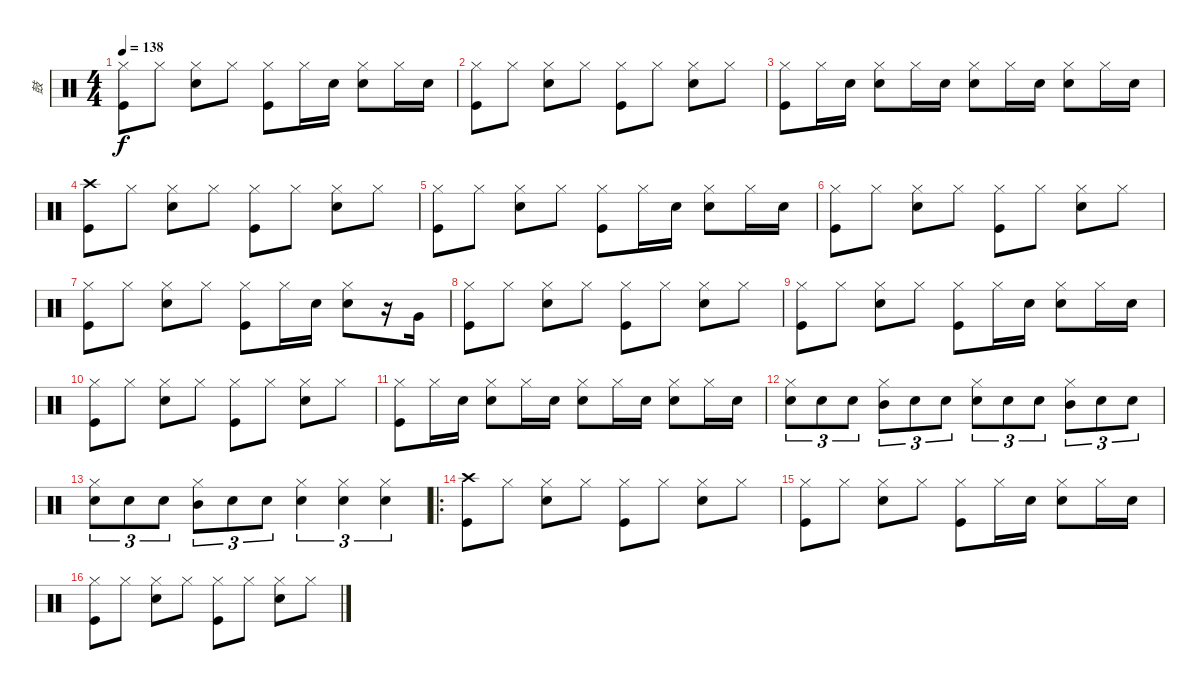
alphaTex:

\track ("鼓" "鼓") {instrument percussion}
\staff {score}
\articulation defaults
\ts (4 4)
\tempo 138
\clef neutral
\ks c
("Hi-Hat (closed)" "Kick (hit)").8{dy f} "Hi-Hat (closed)".8 ("Hi-Hat (closed)" "Snare (hit) 2").8 "Hi-Hat (closed)".8 ("Hi-Hat (closed)" "Kick (hit)").8 "Hi-Hat (closed)".16 "Snare (hit) 2".16 ("Hi-Hat (closed)" "Snare (hit) 2").8 "Hi-Hat (closed)".16 "Snare (hit) 2".16 |
("Hi-Hat (closed)" "Kick (hit)").8 "Hi-Hat (closed)".8 ("Hi-Hat (closed)" "Snare (hit) 2").8 "Hi-Hat (closed)".8 ("Hi-Hat (closed)" "Kick (hit)").8 "Hi-Hat (closed)".8 ("Hi-Hat (closed)" "Snare (hit) 2").8 "Hi-Hat (closed)".8 |
("Hi-Hat (closed)" "Kick (hit)").8 "Hi-Hat (closed)".16 "Snare (hit) 2".16 ("Hi-Hat (closed)" "Snare (hit) 2").8 "Hi-Hat (closed)".16 "Snare (hit) 2".16 ("Hi-Hat (closed)" "Snare (hit) 2").8 "Hi-Hat (closed)".16 "Snare (hit) 2".16 ("Hi-Hat (closed)" "Snare (hit) 2").8 "Hi-Hat (closed)".16 "Snare (hit) 2".16 |
("Crash high (hit)" "Kick (hit)").8 "Hi-Hat (closed)".8 ("Hi-Hat (closed)" "Snare (hit) 2").8 "Hi-Hat (closed)".8 ("Hi-Hat (closed)" "Kick (hit)").8 "Hi-Hat (closed)".8 ("Hi-Hat (closed)" "Snare (hit) 2").8 "Hi-Hat (closed)".8 |
("Hi-Hat (closed)" "Kick (hit)").8 "Hi-Hat (closed)".8 ("Hi-Hat (closed)" "Snare (hit) 2").8 "Hi-Hat (closed)".8 ("Hi-Hat (closed)" "Kick (hit)").8 "Hi-Hat (closed)".16 "Snare (hit) 2".16 ("Hi-Hat (closed)" "Snare (hit) 2").8 "Hi-Hat (closed)".16 "Snare (hit) 2".16 |
("Hi-Hat (closed)" "Kick (hit)").8 "Hi-Hat (closed)".8 ("Hi-Hat (closed)" "Snare (hit) 2").8 "Hi-Hat (closed)".8 ("Hi-Hat (closed)" "Kick (hit)").8 "Hi-Hat (closed)".8 ("Hi-Hat (closed)" "Snare (hit) 2").8 "Hi-Hat (closed)".8 |
("Hi-Hat (closed)" "Kick (hit)").8 "Hi-Hat (closed)".8 ("Hi-Hat (closed)" "Snare (hit) 2").8 "Hi-Hat (closed)".8 ("Hi-Hat (closed)" "Kick (hit)").8 "Hi-Hat (closed)".16 "Snare (hit) 2".16 ("Hi-Hat (closed)" "Snare (hit) 2").8 r.16 "Very Low Tom (hit)".16 |
("Hi-Hat (closed)" "Kick (hit)").8 "Hi-Hat (closed)".8 ("Hi-Hat (closed)" "Snare (hit) 2").8 "Hi-Hat (closed)".8 ("Hi-Hat (closed)" "Kick (hit)").8 "Hi-Hat (closed)".8 ("Hi-Hat (closed)" "Snare (hit) 2").8 "Hi-Hat (closed)".8 |
("Hi-Hat (closed)" "Kick (hit)").8 "Hi-Hat (closed)".8 ("Hi-Hat (closed)" "Snare (hit) 2").8 "Hi-Hat (closed)".8 ("Hi-Hat (closed)" "Kick (hit)").8 "Hi-Hat (closed)".16 "Snare (hit) 2".16 ("Hi-Hat (closed)" "Snare (hit) 2").8 "Hi-Hat (closed)".16 "Snare (hit) 2".16 |
("Hi-Hat (closed)" "Kick (hit)").8 "Hi-Hat (closed)".8 ("Hi-Hat (closed)" "Snare (hit) 2").8 "Hi-Hat (closed)".8 ("Hi-Hat (closed)" "Kick (hit)").8 "Hi-Hat (closed)".8 ("Hi-Hat (closed)" "Snare (hit) 2").8 "Hi-Hat (closed)".8 |
("Hi-Hat (closed)" "Kick (hit)").8 "Hi-Hat (closed)".16 "Snare (hit) 2".16 ("Hi-Hat (closed)" "Snare (hit) 2").8 "Hi-Hat (closed)".16 "Snare (hit) 2".16 ("Hi-Hat (closed)" "Snare (hit) 2").8 "Hi-Hat (closed)".16 "Snare (hit) 2".16 ("Hi-Hat (closed)" "Snare (hit) 2").8 "Hi-Hat (closed)".16 "Snare (hit) 2".16 |
("Hi-Hat (closed)" "Snare (hit) 2").8{tu (3 2)} "Snare (hit) 2".8{tu (3 2)} "Snare (hit) 2".8{tu (3 2)} ("Hi-Hat (closed)" "Mid Tom (hit)").8{tu (3 2)} "Snare (hit) 2".8{tu (3 2)} "Snare (hit) 2".8{tu (3 2)} ("Hi-Hat (closed)" "Snare (hit) 2").8{tu (3 2)} "Snare (hit) 2".8{tu (3 2)} "Snare (hit) 2".8{tu (3 2)} ("Hi-Hat (closed)" "Mid Tom (hit)").8{tu (3 2)} "Snare (hit) 2".8{tu (3 2)} "Snare (hit) 2".8{tu (3 2)} |
("Hi-Hat (closed)" "Snare (hit) 2").8{tu (3 2)} "Snare (hit) 2".8{tu (3 2)} "Snare (hit) 2".8{tu (3 2)} ("Hi-Hat (closed)" "Mid Tom (hit)").8{tu (3 2)} "Snare (hit) 2".8{tu (3 2)} "Snare (hit) 2".8{tu (3 2)} ("Hi-Hat (closed)" "Snare (hit) 2").4{tu (3 2)} ("Hi-Hat (closed)" "Snare (hit) 2").4{tu (3 2)} ("Hi-Hat (closed)" "Snare (hit) 2").4{tu (3 2)} |
\ro
("Crash high (hit)" "Kick (hit)").8 "Hi-Hat (closed)".8 ("Hi-Hat (closed)" "Snare (hit) 2").8 "Hi-Hat (closed)".8 ("Hi-Hat (closed)" "Kick (hit)").8 "Hi-Hat (closed)".8 ("Hi-Hat (closed)" "Snare (hit) 2").8 "Hi-Hat (closed)".8 |
("Hi-Hat (closed)" "Kick (hit)").8 "Hi-Hat (closed)".8 ("Hi-Hat (closed)" "Snare (hit) 2").8 "Hi-Hat (closed)".8 ("Hi-Hat (closed)" "Kick (hit)").8 "Hi-Hat (closed)".16 "Snare (hit) 2".16 ("Hi-Hat (closed)" "Snare (hit) 2").8 "Hi-Hat (closed)".16 "Snare (hit) 2".16 |
("Hi-Hat (closed)" "Kick (hit)").8 "Hi-Hat (closed)".8 ("Hi-Hat (closed)" "Snare (hit) 2").8 "Hi-Hat (closed)".8 ("Hi-Hat (closed)" "Kick (hit)").8 "Hi-Hat (closed)".8 ("Hi-Hat (closed)" "Snare (hit) 2").8 "Hi-Hat (closed)".8
